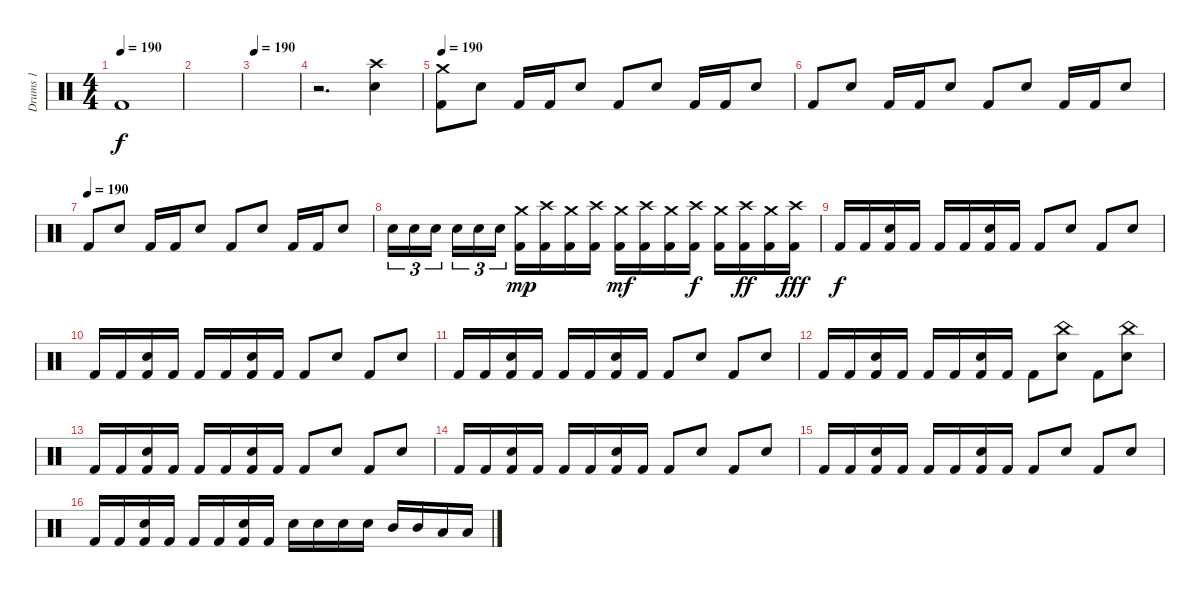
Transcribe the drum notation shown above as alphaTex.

\track ("Drums 1" "Drums 1") {instrument percussion}
\staff {score}
\articulation defaults
\ts (4 4)
\tempo 190
\clef neutral
\ks c "Kick (hit) 2".1{dy f}
|
|
\tempo 190
|
r.2{d} ("Crash high (hit)" "Snare (hit) 2").4 |
\tempo 190
("Crash medium (hit)" "Kick (hit) 2").8 "Snare (hit) 2".8 "Kick (hit) 2".16 "Kick (hit) 2".16 "Snare (hit) 2".8 "Kick (hit) 2".8 "Snare (hit) 2".8 "Kick (hit) 2".16 "Kick (hit) 2".16 "Snare (hit) 2".8 |
"Kick (hit) 2".8 "Snare (hit) 2".8 "Kick (hit) 2".16 "Kick (hit) 2".16 "Snare (hit) 2".8 "Kick (hit) 2".8 "Snare (hit) 2".8 "Kick (hit) 2".16 "Kick (hit) 2".16 "Snare (hit) 2".8 |
\tempo (190)
"Kick (hit) 2".8 "Snare (hit) 2".8 "Kick (hit) 2".16 "Kick (hit) 2".16 "Snare (hit) 2".8 "Kick (hit) 2".8 "Snare (hit) 2".8 "Kick (hit) 2".16 "Kick (hit) 2".16 "Snare (hit) 2".8 |
"Snare (hit) 2".16{tu (3 2)} "Snare (hit) 2".16{tu (3 2)} "Snare (hit) 2".16{tu (3 2)} "Snare (hit) 2".16{tu (3 2)} "Snare (hit) 2".16{tu (3 2)} "Snare (hit) 2".16{tu (3 2)} ("Crash medium (hit)" "Kick (hit) 2").16{dy mp} ("Crash high (hit)" "Kick (hit) 2").16 ("Crash medium (hit)" "Kick (hit) 2").16 ("Crash high (hit)" "Kick (hit) 2").16 ("Crash medium (hit)" "Kick (hit) 2").16{dy mf} ("Crash high (hit)" "Kick (hit) 2").16 ("Crash medium (hit)" "Kick (hit) 2").16 ("Crash high (hit)" "Kick (hit) 2").16{dy f} ("Crash medium (hit)" "Kick (hit) 2").16 ("Crash high (hit)" "Kick (hit) 2").16{dy ff} ("Crash medium (hit)" "Kick (hit) 2").16 ("Crash high (hit)" "Kick (hit) 2").16{dy fff} |
"Kick (hit) 2".16{dy f} "Kick (hit) 2".16 ("Snare (hit) 2" "Kick (hit) 2").16 "Kick (hit) 2".16 "Kick (hit) 2".16 "Kick (hit) 2".16 ("Snare (hit) 2" "Kick (hit) 2").16 "Kick (hit) 2".16 "Kick (hit) 2".8 "Snare (hit) 2".8 "Kick (hit) 2".8 "Snare (hit) 2".8 |
"Kick (hit) 2".16 "Kick (hit) 2".16 ("Snare (hit) 2" "Kick (hit) 2").16 "Kick (hit) 2".16 "Kick (hit) 2".16 "Kick (hit) 2".16 ("Snare (hit) 2" "Kick (hit) 2").16 "Kick (hit) 2".16 "Kick (hit) 2".8 "Snare (hit) 2".8 "Kick (hit) 2".8 "Snare (hit) 2".8 |
"Kick (hit) 2".16 "Kick (hit) 2".16 ("Snare (hit) 2" "Kick (hit) 2").16 "Kick (hit) 2".16 "Kick (hit) 2".16 "Kick (hit) 2".16 ("Snare (hit) 2" "Kick (hit) 2").16 "Kick (hit) 2".16 "Kick (hit) 2".8 "Snare (hit) 2".8 "Kick (hit) 2".8 "Snare (hit) 2".8 |
"Kick (hit) 2".16 "Kick (hit) 2".16 ("Snare (hit) 2" "Kick (hit) 2").16 "Kick (hit) 2".16 "Kick (hit) 2".16 "Kick (hit) 2".16 ("Snare (hit) 2" "Kick (hit) 2").16 "Kick (hit) 2".16 "Kick (hit) 2".8 ("China (hit)" "Snare (hit) 2").8 "Kick (hit) 2".8 ("China (hit)" "Snare (hit) 2").8 |
"Kick (hit) 2".16 "Kick (hit) 2".16 ("Snare (hit) 2" "Kick (hit) 2").16 "Kick (hit) 2".16 "Kick (hit) 2".16 "Kick (hit) 2".16 ("Snare (hit) 2" "Kick (hit) 2").16 "Kick (hit) 2".16 "Kick (hit) 2".8 "Snare (hit) 2".8 "Kick (hit) 2".8 "Snare (hit) 2".8 |
"Kick (hit) 2".16 "Kick (hit) 2".16 ("Snare (hit) 2" "Kick (hit) 2").16 "Kick (hit) 2".16 "Kick (hit) 2".16 "Kick (hit) 2".16 ("Snare (hit) 2" "Kick (hit) 2").16 "Kick (hit) 2".16 "Kick (hit) 2".8 "Snare (hit) 2".8 "Kick (hit) 2".8 "Snare (hit) 2".8 |
"Kick (hit) 2".16 "Kick (hit) 2".16 ("Snare (hit) 2" "Kick (hit) 2").16 "Kick (hit) 2".16 "Kick (hit) 2".16 "Kick (hit) 2".16 ("Snare (hit) 2" "Kick (hit) 2").16 "Kick (hit) 2".16 "Kick (hit) 2".8 "Snare (hit) 2".8 "Kick (hit) 2".8 "Snare (hit) 2".8 |
"Kick (hit) 2".16 "Kick (hit) 2".16 ("Snare (hit) 2" "Kick (hit) 2").16 "Kick (hit) 2".16 "Kick (hit) 2".16 "Kick (hit) 2".16 ("Snare (hit) 2" "Kick (hit) 2").16 "Kick (hit) 2".16 "Snare (hit) 2".16 "Snare (hit) 2".16 "Snare (hit) 2".16 "Snare (hit) 2".16 "Mid Tom (hit)".16 "Mid Tom (hit)".16 "Low Tom (hit)".16 "Low Tom (hit)".16
